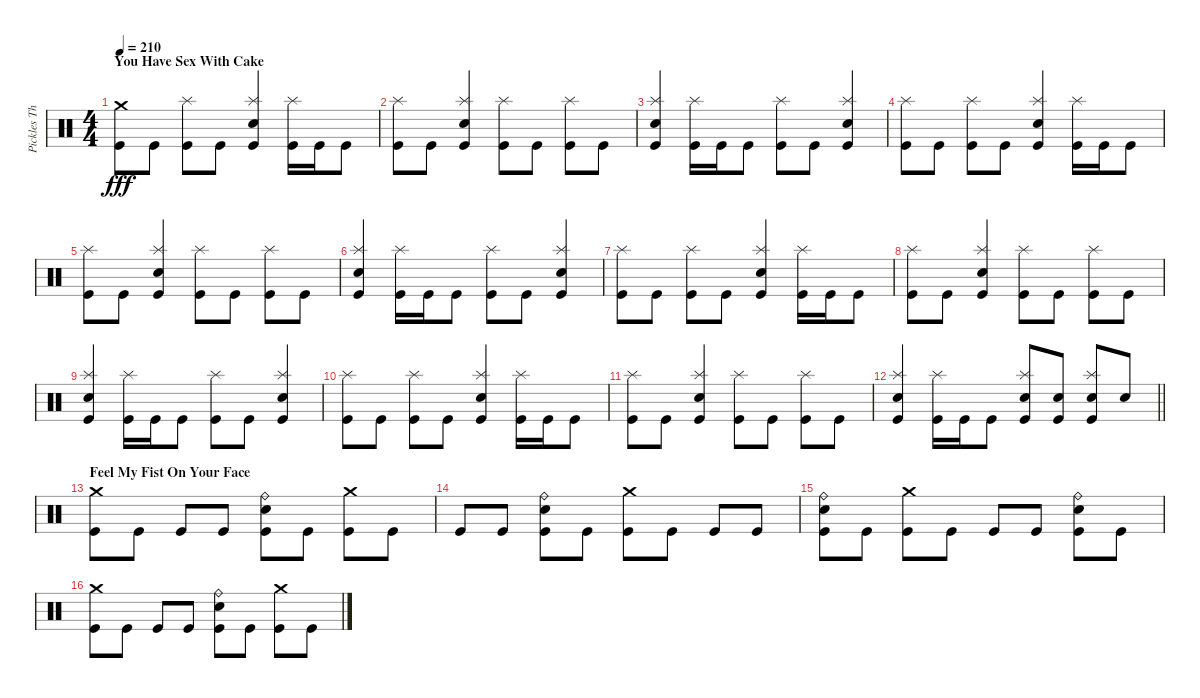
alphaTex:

\track ("Pickles The Drummer (Drums)" "Pickles Th") {instrument percussion}
\staff {score}
\articulation defaults
\ts (4 4)
\section ("" "You Have Sex With Cake")
\tempo 210
\clef neutral
\ks c
("Crash medium (hit)" "Kick (hit)").8{dy fff} "Kick (hit)".8 ("Splash (hit)" "Kick (hit)").8 "Kick (hit)".8 ("Splash (hit)" "Snare (hit) 2" "Kick (hit)").4 ("Splash (hit)" "Kick (hit)").16 "Kick (hit)".16 "Kick (hit)".8 |
("Splash (hit)" "Kick (hit)").8 "Kick (hit)".8 ("Splash (hit)" "Snare (hit) 2" "Kick (hit)").4 ("Splash (hit)" "Kick (hit)").8 "Kick (hit)".8 ("Splash (hit)" "Kick (hit)").8 "Kick (hit)".8 |
("Splash (hit)" "Snare (hit) 2" "Kick (hit)").4 ("Splash (hit)" "Kick (hit)").16 "Kick (hit)".16 "Kick (hit)".8 ("Splash (hit)" "Kick (hit)").8 "Kick (hit)".8 ("Splash (hit)" "Snare (hit) 2" "Kick (hit)").4 |
("Splash (hit)" "Kick (hit)").8 "Kick (hit)".8 ("Splash (hit)" "Kick (hit)").8 "Kick (hit)".8 ("Splash (hit)" "Snare (hit) 2" "Kick (hit)").4 ("Splash (hit)" "Kick (hit)").16 "Kick (hit)".16 "Kick (hit)".8 |
("Splash (hit)" "Kick (hit)").8 "Kick (hit)".8 ("Splash (hit)" "Snare (hit) 2" "Kick (hit)").4 ("Splash (hit)" "Kick (hit)").8 "Kick (hit)".8 ("Splash (hit)" "Kick (hit)").8 "Kick (hit)".8 |
("Splash (hit)" "Snare (hit) 2" "Kick (hit)").4 ("Splash (hit)" "Kick (hit)").16 "Kick (hit)".16 "Kick (hit)".8 ("Splash (hit)" "Kick (hit)").8 "Kick (hit)".8 ("Splash (hit)" "Snare (hit) 2" "Kick (hit)").4 |
("Splash (hit)" "Kick (hit)").8 "Kick (hit)".8 ("Splash (hit)" "Kick (hit)").8 "Kick (hit)".8 ("Splash (hit)" "Snare (hit) 2" "Kick (hit)").4 ("Splash (hit)" "Kick (hit)").16 "Kick (hit)".16 "Kick (hit)".8 |
("Splash (hit)" "Kick (hit)").8 "Kick (hit)".8 ("Splash (hit)" "Snare (hit) 2" "Kick (hit)").4 ("Splash (hit)" "Kick (hit)").8 "Kick (hit)".8 ("Splash (hit)" "Kick (hit)").8 "Kick (hit)".8 |
("Splash (hit)" "Snare (hit) 2" "Kick (hit)").4 ("Splash (hit)" "Kick (hit)").16 "Kick (hit)".16 "Kick (hit)".8 ("Splash (hit)" "Kick (hit)").8 "Kick (hit)".8 ("Splash (hit)" "Snare (hit) 2" "Kick (hit)").4 |
("Splash (hit)" "Kick (hit)").8 "Kick (hit)".8 ("Splash (hit)" "Kick (hit)").8 "Kick (hit)".8 ("Splash (hit)" "Snare (hit) 2" "Kick (hit)").4 ("Splash (hit)" "Kick (hit)").16 "Kick (hit)".16 "Kick (hit)".8 |
("Splash (hit)" "Kick (hit)").8 "Kick (hit)".8 ("Splash (hit)" "Snare (hit) 2" "Kick (hit)").4 ("Splash (hit)" "Kick (hit)").8 "Kick (hit)".8 ("Splash (hit)" "Kick (hit)").8 "Kick (hit)".8 |
\barLineRight lightlight
("Splash (hit)" "Snare (hit) 2" "Kick (hit)").4 ("Splash (hit)" "Kick (hit)").16 "Kick (hit)".16 "Kick (hit)".8 ("Splash (hit)" "Snare (hit) 2" "Kick (hit)").8 ("Snare (hit) 2" "Kick (hit)").8 ("Splash (hit)" "Snare (hit) 2" "Kick (hit)").8 "Snare (hit) 2".8 |
\section ("" "Feel My Fist On Your Face")
("Crash medium (hit)" "Kick (hit)").8 "Kick (hit)".8 "Kick (hit)".8 "Kick (hit)".8 ("Ride (bell)" "Snare (hit) 2" "Kick (hit)").8 "Kick (hit)".8 ("Crash medium (hit)" "Kick (hit)").8 "Kick (hit)".8 |
"Kick (hit)".8 "Kick (hit)".8 ("Ride (bell)" "Snare (hit) 2" "Kick (hit)").8 "Kick (hit)".8 ("Crash medium (hit)" "Kick (hit)").8 "Kick (hit)".8 "Kick (hit)".8 "Kick (hit)".8 |
("Ride (bell)" "Snare (hit) 2" "Kick (hit)").8 "Kick (hit)".8 ("Crash medium (hit)" "Kick (hit)").8 "Kick (hit)".8 "Kick (hit)".8 "Kick (hit)".8 ("Ride (bell)" "Snare (hit) 2" "Kick (hit)").8 "Kick (hit)".8 |
("Crash medium (hit)" "Kick (hit)").8 "Kick (hit)".8 "Kick (hit)".8 "Kick (hit)".8 ("Ride (bell)" "Snare (hit) 2" "Kick (hit)").8 "Kick (hit)".8 ("Crash medium (hit)" "Kick (hit)").8 "Kick (hit)".8
